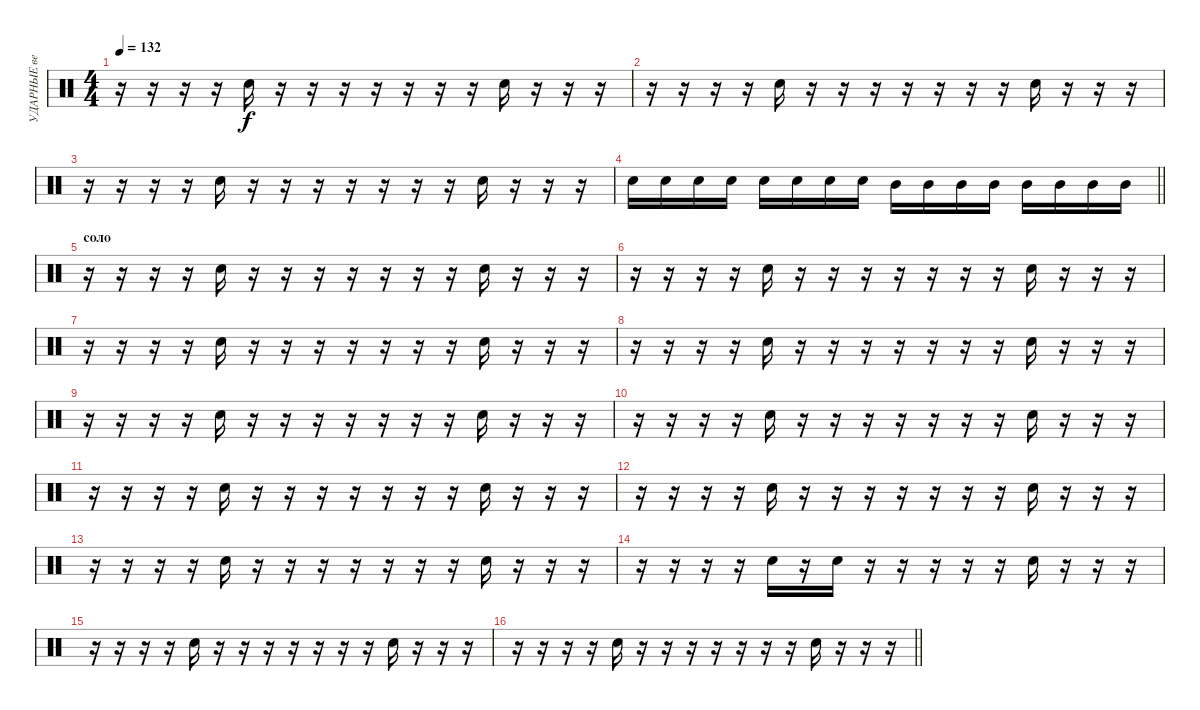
\track ("УДАРНЫЕ ведущий" "УДАРНЫЕ ве") {instrument percussion}
\staff {score}
\articulation defaults
\ts (4 4)
\tempo 132
\clef neutral
\ks c
r.16{dy f} r.16 r.16 r.16 "Snare (hit) 2".16 r.16 r.16 r.16 r.16 r.16 r.16 r.16 "Snare (hit) 2".16 r.16 r.16 r.16 |
r.16 r.16 r.16 r.16 "Snare (hit) 2".16 r.16 r.16 r.16 r.16 r.16 r.16 r.16 "Snare (hit) 2".16 r.16 r.16 r.16 |
r.16 r.16 r.16 r.16 "Snare (hit) 2".16 r.16 r.16 r.16 r.16 r.16 r.16 r.16 "Snare (hit) 2".16 r.16 r.16 r.16 |
\barLineRight lightlight "Snare (hit) 2".16 "Snare (hit) 2".16 "Snare (hit) 2".16 "Snare (hit) 2".16 "Snare (hit) 2".16 "Snare (hit) 2".16 "Snare (hit) 2".16 "Snare (hit) 2".16 "Mid Tom (hit)".16 "Mid Tom (hit)".16 "Mid Tom (hit)".16 "Mid Tom (hit)".16 "Mid Tom (hit)".16 "Mid Tom (hit)".16 "Mid Tom (hit)".16 "Mid Tom (hit)".16
|
\section ("" "соло")
r.16 r.16 r.16 r.16 "Snare (hit) 2".16 r.16 r.16 r.16 r.16 r.16 r.16 r.16 "Snare (hit) 2".16 r.16 r.16 r.16 |
r.16 r.16 r.16 r.16 "Snare (hit) 2".16 r.16 r.16 r.16 r.16 r.16 r.16 r.16 "Snare (hit) 2".16 r.16 r.16 r.16 |
r.16 r.16 r.16 r.16 "Snare (hit) 2".16 r.16 r.16 r.16 r.16 r.16 r.16 r.16 "Snare (hit) 2".16 r.16 r.16 r.16 |
r.16 r.16 r.16 r.16 "Snare (hit) 2".16 r.16 r.16 r.16 r.16 r.16 r.16 r.16 "Snare (hit) 2".16 r.16 r.16 r.16 |
r.16 r.16 r.16 r.16 "Snare (hit) 2".16 r.16 r.16 r.16 r.16 r.16 r.16 r.16 "Snare (hit) 2".16 r.16 r.16 r.16 |
r.16 r.16 r.16 r.16 "Snare (hit) 2".16 r.16 r.16 r.16 r.16 r.16 r.16 r.16 "Snare (hit) 2".16 r.16 r.16 r.16 |
r.16 r.16 r.16 r.16 "Snare (hit) 2".16 r.16 r.16 r.16 r.16 r.16 r.16 r.16 "Snare (hit) 2".16 r.16 r.16 r.16 |
r.16 r.16 r.16 r.16 "Snare (hit) 2".16 r.16 r.16 r.16 r.16 r.16 r.16 r.16 "Snare (hit) 2".16 r.16 r.16 r.16 |
r.16 r.16 r.16 r.16 "Snare (hit) 2".16 r.16 r.16 r.16 r.16 r.16 r.16 r.16 "Snare (hit) 2".16 r.16 r.16 r.16 |
r.16 r.16 r.16 r.16 "Snare (hit) 2".16 r.16 "Snare (hit) 2".16 r.16 r.16 r.16 r.16 r.16 "Snare (hit) 2".16 r.16 r.16 r.16 |
r.16 r.16 r.16 r.16 "Snare (hit) 2".16 r.16 r.16 r.16 r.16 r.16 r.16 r.16 "Snare (hit) 2".16 r.16 r.16 r.16 |
\barLineRight lightlight
r.16 r.16 r.16 r.16 "Snare (hit) 2".16 r.16 r.16 r.16 r.16 r.16 r.16 r.16 "Snare (hit) 2".16 r.16 r.16 r.16
